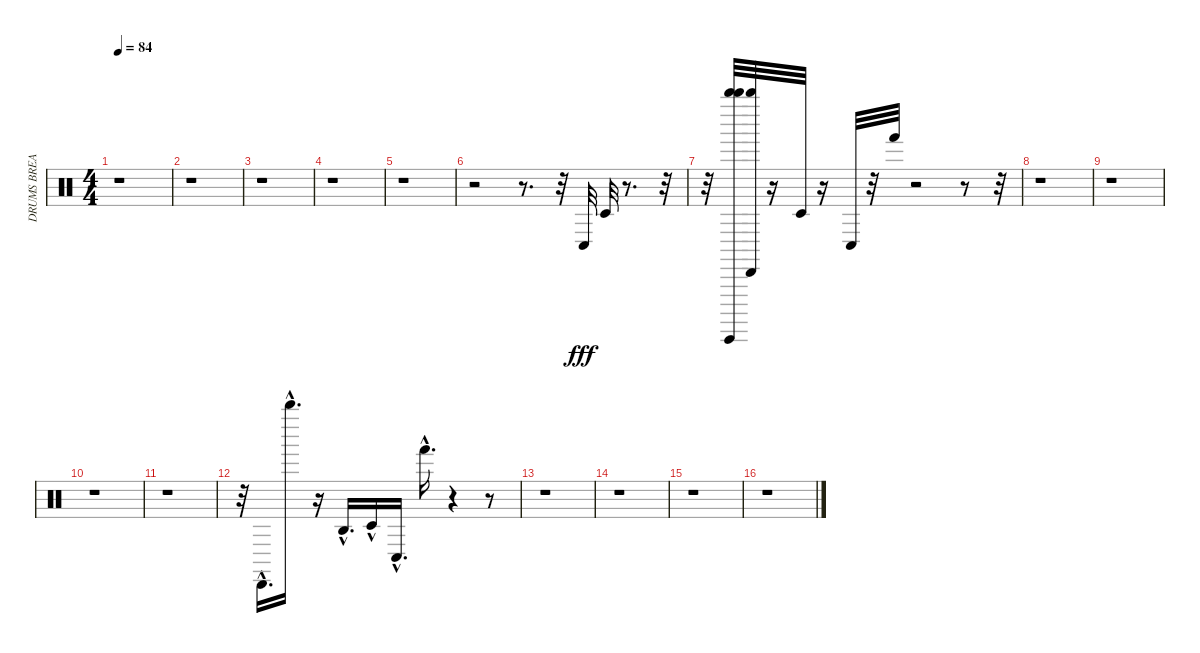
\track ("DRUMS BREAK" "DRUMS BREA") {instrument percussion}
\staff {score}
\articulation defaults
\ts (4 4)
\tempo 84
\clef neutral
\ks c
r.1{dy fff} |
r.1 |
r.1 |
r.1 |
r.1 |
r.2 r.8{d} r.32 "Conga low (hit)".32 "Timbale low (hit)".32 r.8{d} r.32 |
r.32 ("Whistle high (hit)" "Guiro (hit)" "Whistle high (hit)").32 ("Cabasa (hit)" "Whistle high (hit)").32 r.16 "Timbale low (hit)".32 r.16 "Conga low (hit)".32 r.32 "Hand (hit)".32 r.2 r.8 r.32 |
r.1 |
r.1 |
r.1 |
r.1 |
r.32 "Cabasa (hit)"{hac}.16{d} "Whistle high (hit)"{hac}.16{d} r.16 "Agogo high (hit)"{hac}.16{d} "Timbale low (hit)"{hac}.16 "Conga low (hit)"{hac}.16{d} "Hand (hit)"{hac}.16{d} r.4 r.8 |
r.1 |
r.1 |
r.1 |
r.1
